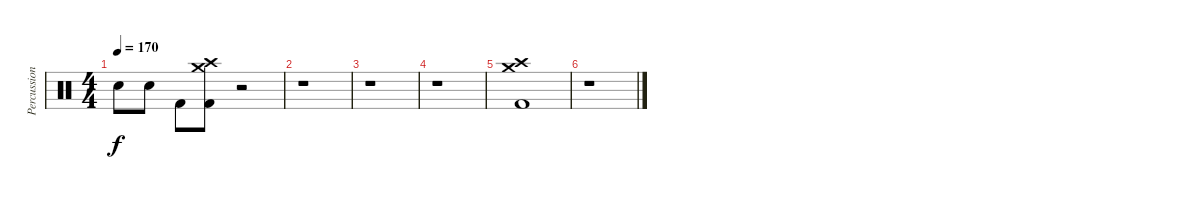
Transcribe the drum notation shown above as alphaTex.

\track ("Percussion" "Percussion") {instrument percussion}
\staff {score}
\articulation defaults
\ts (4 4)
\tempo 170
\clef neutral
\ks c "Snare (hit) 2".8{dy f} "Snare (hit) 2".8 "Kick (hit) 2".8
("Crash medium (hit)" "Crash high (hit)" "Kick (hit) 2").8 r.2 |
r.1 |
r.1 |
r.1 |
("Crash medium (hit)" "Crash high (hit)" "Kick (hit) 2").1 |
r.1
